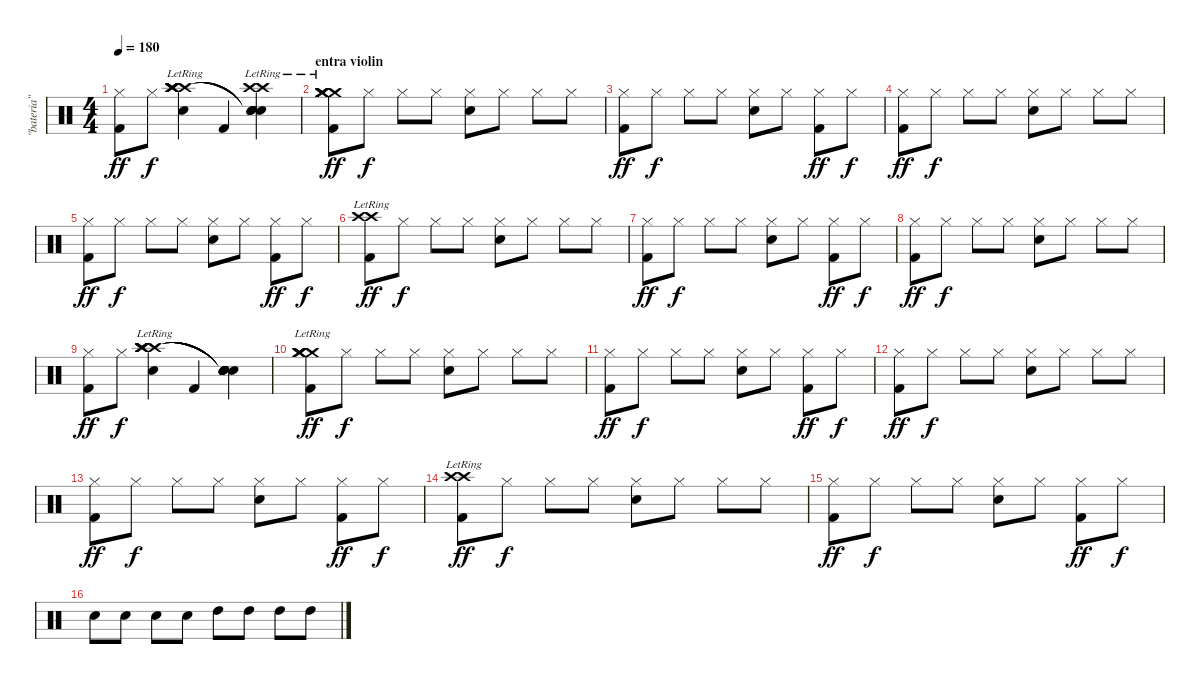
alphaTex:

\track ("\"bateria\"" "\"bateria\"") {instrument percussion}
\staff {score}
\articulation defaults
\ts (4 4)
\tempo 180
\clef neutral
\ks c
("Kick (hit) 2" "Hi-Hat (closed)").8{dy ff} "Hi-Hat (closed)".8{dy f} ("Electric Snare (hit)" "Crash high (hit)"{lr} "Crash high (hit)"{lr} "Crash high (hit)"{lr} "Crash high (hit)"{lr} "Crash high (hit)"{lr}).4 "Kick (hit) 2".4 ("Electric Snare (hit)" "Crash high (hit)"{lr} "Crash high (hit)"{lr} "Snare (hit)"{t} "Snare (hit)"{t} "Snare (hit)"{t}).4 |
\section ("" "entra violin")
("Kick (hit) 2" "Crash medium (hit)"{lr} "Crash medium (hit)"{lr} "Crash medium (hit)"{lr} "Crash medium (hit)"{lr} "Crash medium (hit)"{lr}).8{dy ff} "Hi-Hat (closed)".8{dy f} "Hi-Hat (closed)".8 "Hi-Hat (closed)".8 ("Electric Snare (hit)" "Hi-Hat (closed)").8 "Hi-Hat (closed)".8 "Hi-Hat (closed)".8 "Hi-Hat (closed)".8 |
("Kick (hit) 2" "Hi-Hat (closed)").8{dy ff} "Hi-Hat (closed)".8{dy f} "Hi-Hat (closed)".8 "Hi-Hat (closed)".8 ("Electric Snare (hit)" "Hi-Hat (closed)").8 "Hi-Hat (closed)".8 ("Kick (hit) 2" "Hi-Hat (closed)").8{dy ff} "Hi-Hat (closed)".8{dy f} |
("Kick (hit) 2" "Hi-Hat (closed)").8{dy ff} "Hi-Hat (closed)".8{dy f} "Hi-Hat (closed)".8 "Hi-Hat (closed)".8 ("Electric Snare (hit)" "Hi-Hat (closed)").8 "Hi-Hat (closed)".8 "Hi-Hat (closed)".8 "Hi-Hat (closed)".8 |
("Kick (hit) 2" "Hi-Hat (closed)").8{dy ff} "Hi-Hat (closed)".8{dy f} "Hi-Hat (closed)".8 "Hi-Hat (closed)".8 ("Electric Snare (hit)" "Hi-Hat (closed)").8 "Hi-Hat (closed)".8 ("Kick (hit) 2" "Hi-Hat (closed)").8{dy ff} "Hi-Hat (closed)".8{dy f} |
("Kick (hit) 2" "Crash high (hit)" "Crash high (hit)"{lr}).8{dy ff} "Hi-Hat (closed)".8{dy f} "Hi-Hat (closed)".8 "Hi-Hat (closed)".8 ("Electric Snare (hit)" "Hi-Hat (closed)").8 "Hi-Hat (closed)".8 "Hi-Hat (closed)".8 "Hi-Hat (closed)".8 |
("Kick (hit) 2" "Hi-Hat (closed)").8{dy ff} "Hi-Hat (closed)".8{dy f} "Hi-Hat (closed)".8 "Hi-Hat (closed)".8 ("Electric Snare (hit)" "Hi-Hat (closed)").8 "Hi-Hat (closed)".8 ("Kick (hit) 2" "Hi-Hat (closed)").8{dy ff} "Hi-Hat (closed)".8{dy f} |
("Kick (hit) 2" "Hi-Hat (closed)").8{dy ff} "Hi-Hat (closed)".8{dy f} "Hi-Hat (closed)".8 "Hi-Hat (closed)".8 ("Electric Snare (hit)" "Hi-Hat (closed)").8 "Hi-Hat (closed)".8 "Hi-Hat (closed)".8 "Hi-Hat (closed)".8 |
("Kick (hit) 2" "Hi-Hat (closed)").8{dy ff} "Hi-Hat (closed)".8{dy f} ("Electric Snare (hit)" "Crash high (hit)"{lr} "Crash high (hit)"{lr} "Crash high (hit)"{lr} "Crash high (hit)"{lr} "Crash high (hit)"{lr}).4 "Kick (hit) 2".4 ("Electric Snare (hit)" "Snare (hit)"{t} "Snare (hit)"{t} "Snare (hit)"{t} "Snare (hit)"{t} "Snare (hit)"{t}).4 |
("Kick (hit) 2" "Crash medium (hit)"{lr} "Crash medium (hit)"{lr} "Crash medium (hit)"{lr} "Crash medium (hit)"{lr} "Crash medium (hit)"{lr}).8{dy ff} "Hi-Hat (closed)".8{dy f} "Hi-Hat (closed)".8 "Hi-Hat (closed)".8 ("Electric Snare (hit)" "Hi-Hat (closed)").8 "Hi-Hat (closed)".8 "Hi-Hat (closed)".8 "Hi-Hat (closed)".8 |
("Kick (hit) 2" "Hi-Hat (closed)").8{dy ff} "Hi-Hat (closed)".8{dy f} "Hi-Hat (closed)".8 "Hi-Hat (closed)".8 ("Electric Snare (hit)" "Hi-Hat (closed)").8 "Hi-Hat (closed)".8 ("Kick (hit) 2" "Hi-Hat (closed)").8{dy ff} "Hi-Hat (closed)".8{dy f} |
("Kick (hit) 2" "Hi-Hat (closed)").8{dy ff} "Hi-Hat (closed)".8{dy f} "Hi-Hat (closed)".8 "Hi-Hat (closed)".8 ("Electric Snare (hit)" "Hi-Hat (closed)").8 "Hi-Hat (closed)".8 "Hi-Hat (closed)".8 "Hi-Hat (closed)".8 |
("Kick (hit) 2" "Hi-Hat (closed)").8{dy ff} "Hi-Hat (closed)".8{dy f} "Hi-Hat (closed)".8 "Hi-Hat (closed)".8 ("Electric Snare (hit)" "Hi-Hat (closed)").8 "Hi-Hat (closed)".8 ("Kick (hit) 2" "Hi-Hat (closed)").8{dy ff} "Hi-Hat (closed)".8{dy f} |
("Kick (hit) 2" "Crash high (hit)"{lr} "Crash high (hit)"{lr}).8{dy ff} "Hi-Hat (closed)".8{dy f} "Hi-Hat (closed)".8 "Hi-Hat (closed)".8 ("Electric Snare (hit)" "Hi-Hat (closed)").8 "Hi-Hat (closed)".8 "Hi-Hat (closed)".8 "Hi-Hat (closed)".8 |
("Kick (hit) 2" "Hi-Hat (closed)").8{dy ff} "Hi-Hat (closed)".8{dy f} "Hi-Hat (closed)".8 "Hi-Hat (closed)".8 ("Electric Snare (hit)" "Hi-Hat (closed)").8 "Hi-Hat (closed)".8 ("Kick (hit) 2" "Hi-Hat (closed)").8{dy ff} "Hi-Hat (closed)".8{dy f} |
"Snare (hit) 2".8 "Snare (hit) 2".8 "Snare (hit) 2".8 "Snare (hit) 2".8 "High Tom (hit)".8 "High Tom (hit)".8 "High Tom (hit)".8 "High Tom (hit)".8
